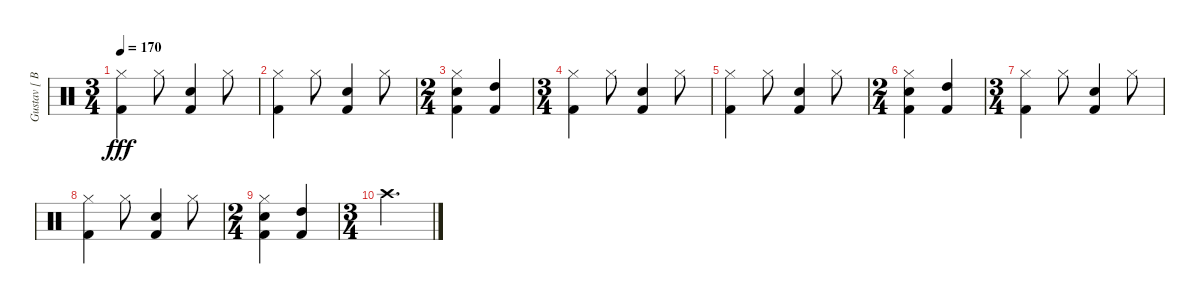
\track ("Gustav [ Batterie ]" "Gustav [ B") {instrument percussion}
\staff {score}
\articulation defaults
\ts (3 4)
\tempo 170
\clef neutral
\ks c
("Hi-Hat (closed)" "Kick (hit) 2").4{dy fff} "Hi-Hat (closed)".8 ("Snare (hit) 2" "Kick (hit) 2").4 "Hi-Hat (closed)".8 |
("Hi-Hat (closed)" "Kick (hit) 2").4 "Hi-Hat (closed)".8 ("Snare (hit) 2" "Kick (hit) 2").4 "Hi-Hat (closed)".8 |
\ts (2 4)
("Hi-Hat (closed)" "Snare (hit) 2" "Kick (hit) 2").4 ("High Tom (hit)" "Kick (hit) 2").4 |
\ts (3 4)
("Hi-Hat (closed)" "Kick (hit) 2").4 "Hi-Hat (closed)".8 ("Snare (hit) 2" "Kick (hit) 2").4 "Hi-Hat (closed)".8 |
("Hi-Hat (closed)" "Kick (hit) 2").4 "Hi-Hat (closed)".8 ("Snare (hit) 2" "Kick (hit) 2").4 "Hi-Hat (closed)".8 |
\ts (2 4)
("Hi-Hat (closed)" "Snare (hit) 2" "Kick (hit) 2").4 ("High Tom (hit)" "Kick (hit) 2").4 |
\ts (3 4)
("Hi-Hat (closed)" "Kick (hit) 2").4 "Hi-Hat (closed)".8 ("Snare (hit) 2" "Kick (hit) 2").4 "Hi-Hat (closed)".8 |
("Hi-Hat (closed)" "Kick (hit) 2").4 "Hi-Hat (closed)".8 ("Snare (hit) 2" "Kick (hit) 2").4 "Hi-Hat (closed)".8 |
\ts (2 4)
("Hi-Hat (closed)" "Snare (hit) 2" "Kick (hit) 2").4 ("High Tom (hit)" "Kick (hit) 2").4 |
\ts (3 4)
"Crash high (hit)".2{d}
